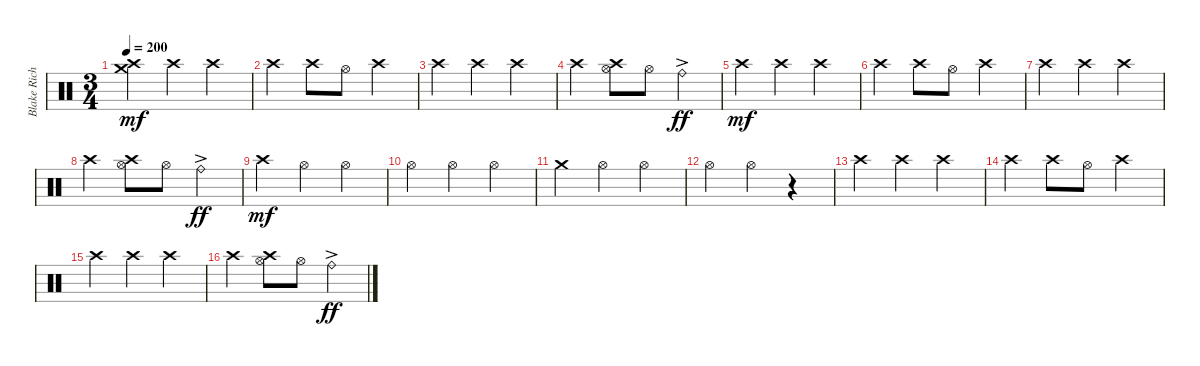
\track ("Blake Richardson Drums" "Blake Rich") {instrument percussion}
\staff {score}
\articulation defaults
\ts (3 4)
\tempo 200
\clef neutral
\ks c
("Crash high (hit)" "Crash medium (hit)").4{dy mf} "Crash high (hit)".4 "Crash high (hit)".4 |
"Crash high (hit)".4 "Crash high (hit)".8 "Hi-Hat (open)".8 "Crash high (hit)".4 |
"Crash high (hit)".4 "Crash high (hit)".4 "Crash high (hit)".4 |
"Crash high (hit)".4 ("Crash high (hit)" "Hi-Hat (open)").8 "Hi-Hat (open)".8 "Ride (bell)"{ac}.4{dy ff} |
"Crash high (hit)".4{dy mf} "Crash high (hit)".4 "Crash high (hit)".4 |
"Crash high (hit)".4 "Crash high (hit)".8 "Hi-Hat (open)".8 "Crash high (hit)".4 |
"Crash high (hit)".4 "Crash high (hit)".4 "Crash high (hit)".4 |
"Crash high (hit)".4 ("Crash high (hit)" "Hi-Hat (open)").8 "Hi-Hat (open)".8 "Ride (bell)"{ac}.4{dy ff} |
"Crash high (hit)".4{dy mf} "Hi-Hat (open)".4 "Hi-Hat (open)".4 |
"Hi-Hat (open)".4 "Hi-Hat (open)".4 "Hi-Hat (open)".4 |
"Crash medium (hit)".4 "Hi-Hat (open)".4 "Hi-Hat (open)".4 |
"Hi-Hat (open)".4 "Hi-Hat (open)".4 r.4 |
"Crash high (hit)".4 "Crash high (hit)".4 "Crash high (hit)".4 |
"Crash high (hit)".4 "Crash high (hit)".8 "Hi-Hat (open)".8 "Crash high (hit)".4 |
"Crash high (hit)".4 "Crash high (hit)".4 "Crash high (hit)".4 |
"Crash high (hit)".4 ("Crash high (hit)" "Hi-Hat (open)").8 "Hi-Hat (open)".8 "Ride (bell)"{ac}.4{dy ff}
